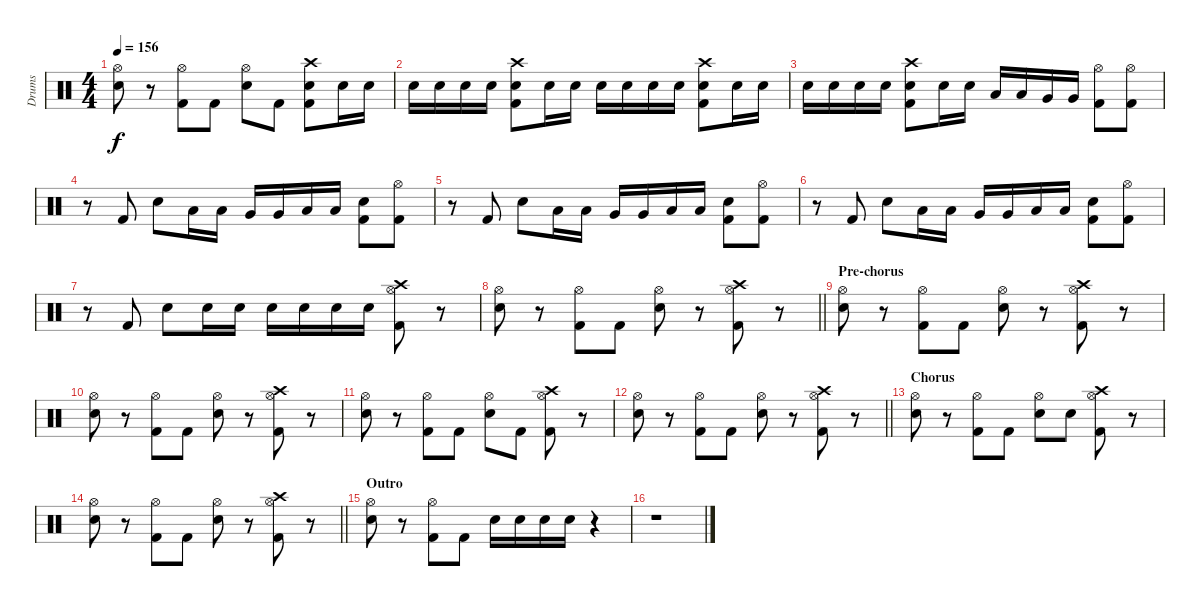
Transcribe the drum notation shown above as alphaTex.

\track ("Drums" "Drums") {instrument percussion}
\staff {score}
\articulation defaults
\ts (4 4)
\tempo 156
\clef neutral
\ks c
("Hi-Hat (open)" "Electric Snare (hit)").8{dy f} r.8 ("Hi-Hat (open)" "Kick (hit) 2").8 "Kick (hit) 2".8 ("Hi-Hat (open)" "Electric Snare (hit)").8 "Kick (hit) 2".8 ("Crash high (hit)" "Electric Snare (hit)" "Kick (hit) 2").8 "Electric Snare (hit)".16 "Electric Snare (hit)".16 |
"Electric Snare (hit)".16 "Electric Snare (hit)".16 "Electric Snare (hit)".16 "Electric Snare (hit)".16 ("Crash high (hit)" "Electric Snare (hit)" "Kick (hit) 2").8 "Electric Snare (hit)".16 "Electric Snare (hit)".16 "Electric Snare (hit)".16 "Electric Snare (hit)".16 "Electric Snare (hit)".16 "Electric Snare (hit)".16 ("Crash high (hit)" "Electric Snare (hit)" "Kick (hit) 2").8 "Electric Snare (hit)".16 "Electric Snare (hit)".16 |
"Electric Snare (hit)".16 "Electric Snare (hit)".16 "Electric Snare (hit)".16 "Electric Snare (hit)".16 ("Crash high (hit)" "Electric Snare (hit)" "Kick (hit) 2").8 "Electric Snare (hit)".16 "Electric Snare (hit)".16 "Low Tom (hit)".16 "Low Tom (hit)".16 "Very Low Tom (hit)".16 "Very Low Tom (hit)".16 ("Hi-Hat (open)" "Kick (hit) 2").8 ("Hi-Hat (open)" "Kick (hit) 2").8 |
r.8 "Kick (hit) 2".8 "Electric Snare (hit)".8 "Low Tom (hit)".16 "Low Tom (hit)".16 "Very Low Tom (hit)".16 "Very Low Tom (hit)".16 "Low Floor Tom (hit)".16 "Low Floor Tom (hit)".16 ("Electric Snare (hit)" "Kick (hit) 2").8 ("Hi-Hat (open)" "Kick (hit) 2").8 |
r.8 "Kick (hit) 2".8 "Electric Snare (hit)".8 "Low Tom (hit)".16 "Low Tom (hit)".16 "Very Low Tom (hit)".16 "Very Low Tom (hit)".16 "Low Floor Tom (hit)".16 "Low Floor Tom (hit)".16 ("Electric Snare (hit)" "Kick (hit) 2").8 ("Hi-Hat (open)" "Kick (hit) 2").8 |
r.8 "Kick (hit) 2".8 "Electric Snare (hit)".8 "Low Tom (hit)".16 "Low Tom (hit)".16 "Very Low Tom (hit)".16 "Very Low Tom (hit)".16 "Low Floor Tom (hit)".16 "Low Floor Tom (hit)".16 ("Electric Snare (hit)" "Kick (hit) 2").8 ("Hi-Hat (open)" "Kick (hit) 2").8 |
r.8 "Kick (hit) 2".8 "Electric Snare (hit)".8 "Electric Snare (hit)".16 "Electric Snare (hit)".16 "Electric Snare (hit)".16 "Electric Snare (hit)".16 "Electric Snare (hit)".16 "Electric Snare (hit)".16 ("Crash high (hit)" "Hi-Hat (open)" "Kick (hit) 2").8 r.8 |
\barLineRight lightlight
("Hi-Hat (open)" "Electric Snare (hit)").8 r.8 ("Hi-Hat (open)" "Kick (hit) 2").8 "Kick (hit) 2".8 ("Hi-Hat (open)" "Electric Snare (hit)").8 r.8 ("Crash high (hit)" "Hi-Hat (open)" "Kick (hit) 2").8 r.8 |
\section ("" "Pre-chorus")
("Hi-Hat (open)" "Electric Snare (hit)").8 r.8 ("Hi-Hat (open)" "Kick (hit) 2").8 "Kick (hit) 2".8 ("Hi-Hat (open)" "Electric Snare (hit)").8 r.8 ("Crash high (hit)" "Hi-Hat (open)" "Kick (hit) 2").8 r.8 |
("Hi-Hat (open)" "Electric Snare (hit)").8 r.8 ("Hi-Hat (open)" "Kick (hit) 2").8 "Kick (hit) 2".8 ("Hi-Hat (open)" "Electric Snare (hit)").8 r.8 ("Crash high (hit)" "Hi-Hat (open)" "Kick (hit) 2").8 r.8 |
("Hi-Hat (open)" "Electric Snare (hit)").8 r.8 ("Hi-Hat (open)" "Kick (hit) 2").8 "Kick (hit) 2".8 ("Hi-Hat (open)" "Electric Snare (hit)").8 "Kick (hit) 2".8 ("Crash high (hit)" "Hi-Hat (open)" "Kick (hit) 2").8 r.8 |
\barLineRight lightlight
("Hi-Hat (open)" "Electric Snare (hit)").8 r.8 ("Hi-Hat (open)" "Kick (hit) 2").8 "Kick (hit) 2".8 ("Hi-Hat (open)" "Electric Snare (hit)").8 r.8 ("Crash high (hit)" "Hi-Hat (open)" "Kick (hit) 2").8 r.8 |
\section ("" "Chorus")
("Hi-Hat (open)" "Electric Snare (hit)").8 r.8 ("Hi-Hat (open)" "Kick (hit) 2").8 "Kick (hit) 2".8 ("Hi-Hat (open)" "Electric Snare (hit)").8 "Electric Snare (hit)".8 ("Crash high (hit)" "Hi-Hat (open)" "Kick (hit) 2").8 r.8 |
\barLineRight lightlight
("Hi-Hat (open)" "Electric Snare (hit)").8 r.8 ("Hi-Hat (open)" "Kick (hit) 2").8 "Kick (hit) 2".8 ("Hi-Hat (open)" "Electric Snare (hit)").8 r.8 ("Crash high (hit)" "Hi-Hat (open)" "Kick (hit) 2").8 r.8 |
\section ("" "Outro")
("Hi-Hat (open)" "Electric Snare (hit)").8 r.8 ("Hi-Hat (open)" "Kick (hit) 2").8 "Kick (hit) 2".8 "Electric Snare (hit)".16 "Electric Snare (hit)".16 "Electric Snare (hit)".16 "Electric Snare (hit)".16 r.4 |
r.1
